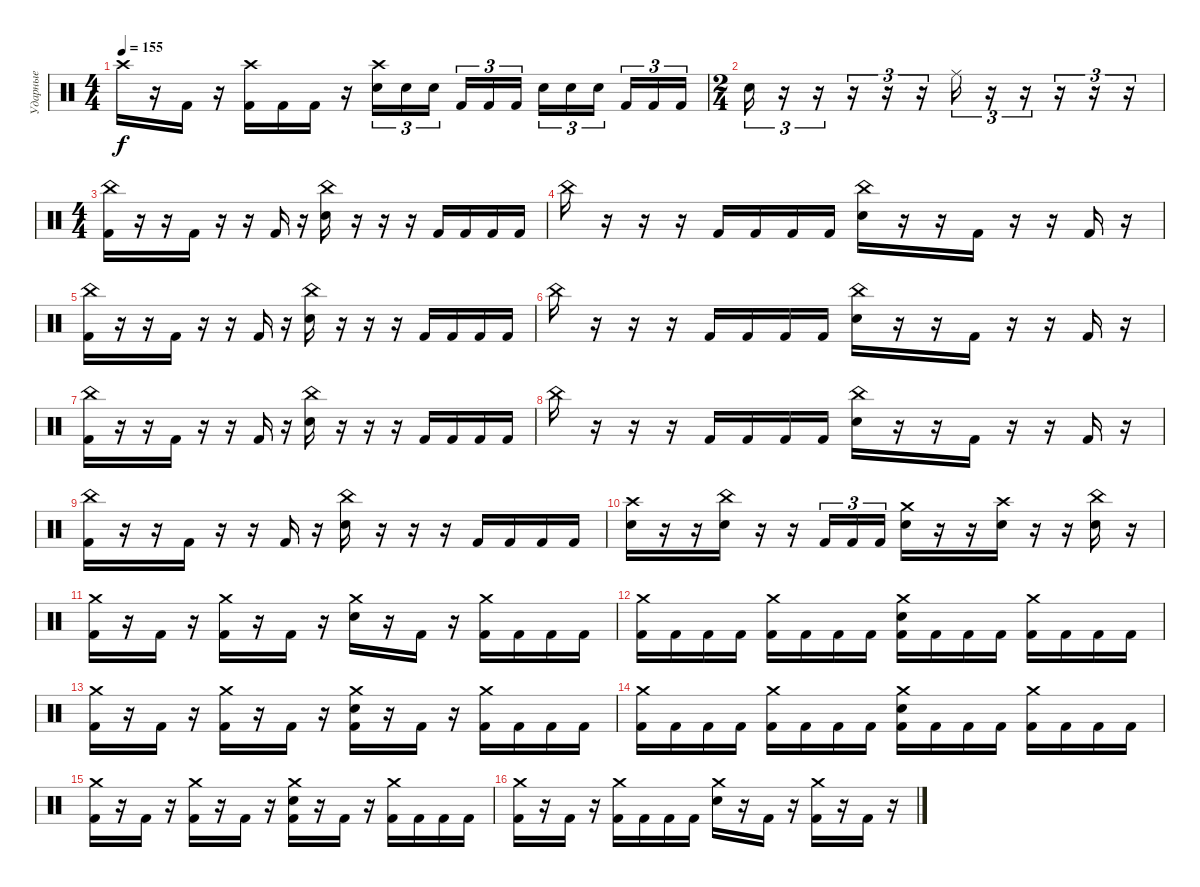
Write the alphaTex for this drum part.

\track ("Ударные" "Ударные") {instrument percussion}
\staff {score}
\articulation defaults
\ts (4 4)
\tempo 155
\clef neutral
\ks c "Crash high (hit)".16{dy f}
r.16 "Kick (hit) 2".16 r.16 ("Crash high (hit)" "Kick (hit) 2").16 "Kick (hit) 2".16 "Kick (hit) 2".16 r.16 ("Crash high (hit)" "Snare (hit) 2").16{tu (3 2)} "Snare (hit) 2".16{tu (3 2)} "Snare (hit) 2".16{tu (3 2) beam splitsecondary} "Kick (hit) 2".16{tu (3 2)} "Kick (hit) 2".16{tu (3 2)} "Kick (hit) 2".16{tu (3 2)} "Snare (hit) 2".16{tu (3 2)} "Snare (hit) 2".16{tu (3 2)} "Snare (hit) 2".16{tu (3 2) beam splitsecondary} "Kick (hit) 2".16{tu (3 2)} "Kick (hit) 2".16{tu (3 2)} "Kick (hit) 2".16{tu (3 2)} |
\ts (2 4)
"Snare (hit) 2".16{tu (3 2)} r.16{tu (3 2)} r.16{tu (3 2)} r.16{tu (3 2)} r.16{tu (3 2)} r.16{tu (3 2)} "Ride (middle)".16{tu (3 2)} r.16{tu (3 2)} r.16{tu (3 2)} r.16{tu (3 2)} r.16{tu (3 2)} r.16{tu (3 2)} |
\ts (4 4)
("China (hit)" "Kick (hit) 2").16 r.16 r.16 "Kick (hit) 2".16 r.16 r.16 "Kick (hit) 2".16 r.16 ("China (hit)" "Snare (hit) 2").16 r.16 r.16 r.16 "Kick (hit) 2".16 "Kick (hit) 2".16 "Kick (hit) 2".16 "Kick (hit) 2".16 |
"China (hit)".16 r.16 r.16 r.16 "Kick (hit) 2".16 "Kick (hit) 2".16 "Kick (hit) 2".16 "Kick (hit) 2".16 ("China (hit)" "Snare (hit) 2").16 r.16 r.16 "Kick (hit) 2".16 r.16 r.16 "Kick (hit) 2".16 r.16 |
("China (hit)" "Kick (hit) 2").16 r.16 r.16 "Kick (hit) 2".16 r.16 r.16 "Kick (hit) 2".16 r.16 ("China (hit)" "Snare (hit) 2").16 r.16 r.16 r.16 "Kick (hit) 2".16 "Kick (hit) 2".16 "Kick (hit) 2".16 "Kick (hit) 2".16 |
"China (hit)".16 r.16 r.16 r.16 "Kick (hit) 2".16 "Kick (hit) 2".16 "Kick (hit) 2".16 "Kick (hit) 2".16 ("China (hit)" "Snare (hit) 2").16 r.16 r.16 "Kick (hit) 2".16 r.16 r.16 "Kick (hit) 2".16 r.16 |
("China (hit)" "Kick (hit) 2").16 r.16 r.16 "Kick (hit) 2".16 r.16 r.16 "Kick (hit) 2".16 r.16 ("China (hit)" "Snare (hit) 2").16 r.16 r.16 r.16 "Kick (hit) 2".16 "Kick (hit) 2".16 "Kick (hit) 2".16 "Kick (hit) 2".16 |
"China (hit)".16 r.16 r.16 r.16 "Kick (hit) 2".16 "Kick (hit) 2".16 "Kick (hit) 2".16 "Kick (hit) 2".16 ("China (hit)" "Snare (hit) 2").16 r.16 r.16 "Kick (hit) 2".16 r.16 r.16 "Kick (hit) 2".16 r.16 |
("China (hit)" "Kick (hit) 2").16 r.16 r.16 "Kick (hit) 2".16 r.16 r.16 "Kick (hit) 2".16 r.16 ("China (hit)" "Snare (hit) 2").16 r.16 r.16 r.16 "Kick (hit) 2".16 "Kick (hit) 2".16 "Kick (hit) 2".16 "Kick (hit) 2".16 |
("Crash high (hit)" "Snare (hit) 2").16 r.16 r.16 ("China (hit)" "Snare (hit) 2").16 r.16 r.16 "Kick (hit) 2".16{tu (3 2)} "Kick (hit) 2".16{tu (3 2)} "Kick (hit) 2".16{tu (3 2)} ("Crash medium (hit)" "Snare (hit) 2").16 r.16 r.16 ("Crash high (hit)" "Snare (hit) 2").16 r.16 r.16 ("China (hit)" "Snare (hit) 2").16 r.16 |
("Crash medium (hit)" "Kick (hit) 2").16 r.16 "Kick (hit) 2".16 r.16 ("Crash medium (hit)" "Kick (hit) 2").16 r.16 "Kick (hit) 2".16 r.16 ("Crash medium (hit)" "Snare (hit) 2").16 r.16 "Kick (hit) 2".16 r.16 ("Crash medium (hit)" "Kick (hit) 2").16 "Kick (hit) 2".16 "Kick (hit) 2".16 "Kick (hit) 2".16 |
("Crash medium (hit)" "Kick (hit) 2").16 "Kick (hit) 2".16 "Kick (hit) 2".16 "Kick (hit) 2".16 ("Crash medium (hit)" "Kick (hit) 2").16 "Kick (hit) 2".16 "Kick (hit) 2".16 "Kick (hit) 2".16 ("Crash medium (hit)" "Snare (hit) 2" "Kick (hit) 2").16 "Kick (hit) 2".16 "Kick (hit) 2".16 "Kick (hit) 2".16 ("Crash medium (hit)" "Kick (hit) 2").16 "Kick (hit) 2".16 "Kick (hit) 2".16 "Kick (hit) 2".16 |
("Crash medium (hit)" "Kick (hit) 2").16 r.16 "Kick (hit) 2".16 r.16 ("Crash medium (hit)" "Kick (hit) 2").16 r.16 "Kick (hit) 2".16 r.16 ("Crash medium (hit)" "Snare (hit) 2" "Kick (hit) 2").16 r.16 "Kick (hit) 2".16 r.16 ("Crash medium (hit)" "Kick (hit) 2").16 "Kick (hit) 2".16 "Kick (hit) 2".16 "Kick (hit) 2".16 |
("Crash medium (hit)" "Kick (hit) 2").16 "Kick (hit) 2".16 "Kick (hit) 2".16 "Kick (hit) 2".16 ("Crash medium (hit)" "Kick (hit) 2").16 "Kick (hit) 2".16 "Kick (hit) 2".16 "Kick (hit) 2".16 ("Crash medium (hit)" "Snare (hit) 2" "Kick (hit) 2").16 "Kick (hit) 2".16 "Kick (hit) 2".16 "Kick (hit) 2".16 ("Crash medium (hit)" "Kick (hit) 2").16 "Kick (hit) 2".16 "Kick (hit) 2".16 "Kick (hit) 2".16 |
("Crash medium (hit)" "Kick (hit) 2").16 r.16 "Kick (hit) 2".16 r.16 ("Crash medium (hit)" "Kick (hit) 2").16 r.16 "Kick (hit) 2".16 r.16 ("Crash medium (hit)" "Snare (hit) 2" "Kick (hit) 2").16 r.16 "Kick (hit) 2".16 r.16 ("Crash medium (hit)" "Kick (hit) 2").16 "Kick (hit) 2".16 "Kick (hit) 2".16 "Kick (hit) 2".16 |
("Crash medium (hit)" "Kick (hit) 2").16 r.16 "Kick (hit) 2".16 r.16 ("Crash medium (hit)" "Kick (hit) 2").16 "Kick (hit) 2".16 "Kick (hit) 2".16 "Kick (hit) 2".16 ("Crash medium (hit)" "Snare (hit) 2").16 r.16 "Kick (hit) 2".16 r.16 ("Crash medium (hit)" "Kick (hit) 2").16 r.16 "Kick (hit) 2".16 r.16
